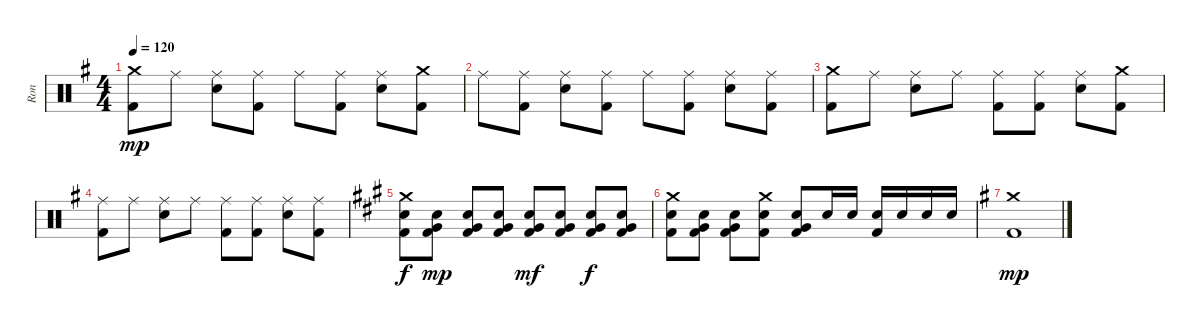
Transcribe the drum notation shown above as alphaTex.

\track ("Ron" "Ron") {instrument percussion}
\staff {score}
\articulation defaults
\ts (4 4)
\tempo 120
\clef neutral
\ks g
("Crash medium (hit)" "Kick (hit) 2").8{dy mp} "Ride (middle)".8 ("Ride (middle)" "Electric Snare (hit)").8 ("Ride (middle)" "Kick (hit) 2").8 "Ride (middle)".8 ("Ride (middle)" "Kick (hit) 2").8 ("Ride (middle)" "Electric Snare (hit)").8 ("Crash medium (hit)" "Kick (hit) 2").8 |
"Ride (middle)".8 ("Ride (middle)" "Kick (hit) 2").8 ("Ride (middle)" "Electric Snare (hit)").8 ("Ride (middle)" "Kick (hit) 2").8 "Ride (middle)".8 ("Ride (middle)" "Kick (hit) 2").8 ("Ride (middle)" "Electric Snare (hit)").8 ("Ride (middle)" "Kick (hit) 2").8 |
("Crash medium (hit)" "Kick (hit) 2").8 "Ride (middle)".8 ("Ride (middle)" "Electric Snare (hit)").8 "Ride (middle)".8 ("Ride (middle)" "Kick (hit) 2").8 ("Ride (middle)" "Kick (hit) 2").8 ("Ride (middle)" "Electric Snare (hit)").8 ("Crash medium (hit)" "Kick (hit) 2").8 |
("Ride (middle)" "Kick (hit) 2").8 "Ride (middle)".8 ("Ride (middle)" "Electric Snare (hit)").8 "Ride (middle)".8 ("Ride (middle)" "Kick (hit) 2").8 ("Ride (middle)" "Kick (hit) 2").8 ("Ride (middle)" "Electric Snare (hit)").8 ("Ride (middle)" "Kick (hit) 2").8 |
\ks a
("Crash medium (hit)" "Electric Snare (hit)" "Kick (hit) 2").8{dy f} ("Electric Snare (hit)" "Very Low Tom (hit)" "Kick (hit) 2").8{dy mp} ("Electric Snare (hit)" "Very Low Tom (hit)" "Kick (hit) 2").8 ("Electric Snare (hit)" "Very Low Tom (hit)" "Kick (hit) 2").8 ("Electric Snare (hit)" "Very Low Tom (hit)" "Kick (hit) 2").8{dy mf} ("Electric Snare (hit)" "Very Low Tom (hit)" "Kick (hit) 2").8 ("Electric Snare (hit)" "Very Low Tom (hit)" "Kick (hit) 2").8{dy f} ("Electric Snare (hit)" "Very Low Tom (hit)" "Kick (hit) 2").8 |
("Crash medium (hit)" "Electric Snare (hit)" "Kick (hit) 2").8 ("Electric Snare (hit)" "Very Low Tom (hit)" "Kick (hit) 2").8 ("Electric Snare (hit)" "Very Low Tom (hit)" "Kick (hit) 2").8 ("Crash medium (hit)" "Electric Snare (hit)" "Kick (hit) 2").8 ("Electric Snare (hit)" "Very Low Tom (hit)" "Kick (hit) 2").8 "Electric Snare (hit)".16 "Electric Snare (hit)".16 ("Electric Snare (hit)" "Kick (hit) 2").16 "Electric Snare (hit)".16 "Electric Snare (hit)".16 "Electric Snare (hit)".16 |
\ks g
("Crash medium (hit)" "Kick (hit) 2").1{dy mp}
